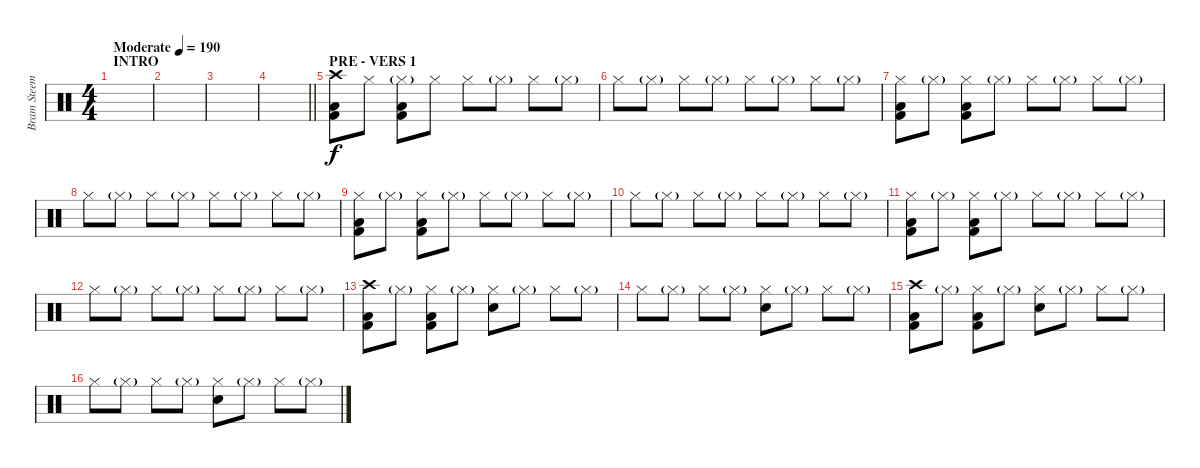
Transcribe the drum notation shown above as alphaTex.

\track ("Bram Steemans" "Bram Steem") {instrument percussion}
\staff {score}
\articulation defaults
\ts (4 4)
\section ("" "INTRO")
\tempo (190 "Moderate")
\clef neutral
\ks c
|
|
|
\barLineRight lightlight
|
\section ("" "PRE - VERS 1")
("Crash high (hit)" "Low Floor Tom (hit)" "Kick (hit) 2").8 "Hi-Hat (closed)".8 ("Hi-Hat (closed)"{g} "Low Floor Tom (hit)" "Kick (hit) 2").8 "Hi-Hat (closed)".8 "Hi-Hat (closed)".8 "Hi-Hat (closed)"{g}.8 "Hi-Hat (closed)".8 "Hi-Hat (closed)"{g}.8 |
"Hi-Hat (closed)".8 "Hi-Hat (closed)"{g}.8 "Hi-Hat (closed)".8 "Hi-Hat (closed)"{g}.8 "Hi-Hat (closed)".8 "Hi-Hat (closed)"{g}.8 "Hi-Hat (closed)".8 "Hi-Hat (closed)"{g}.8 |
("Hi-Hat (closed)" "Low Floor Tom (hit)" "Kick (hit) 2").8 "Hi-Hat (closed)"{g}.8 ("Hi-Hat (closed)" "Low Floor Tom (hit)" "Kick (hit) 2").8 "Hi-Hat (closed)"{g}.8 "Hi-Hat (closed)".8 "Hi-Hat (closed)"{g}.8 "Hi-Hat (closed)".8 "Hi-Hat (closed)"{g}.8 |
"Hi-Hat (closed)".8 "Hi-Hat (closed)"{g}.8 "Hi-Hat (closed)".8 "Hi-Hat (closed)"{g}.8 "Hi-Hat (closed)".8 "Hi-Hat (closed)"{g}.8 "Hi-Hat (closed)".8 "Hi-Hat (closed)"{g}.8 |
("Hi-Hat (closed)" "Low Floor Tom (hit)" "Kick (hit) 2").8 "Hi-Hat (closed)"{g}.8 ("Hi-Hat (closed)" "Low Floor Tom (hit)" "Kick (hit) 2").8 "Hi-Hat (closed)"{g}.8 "Hi-Hat (closed)".8 "Hi-Hat (closed)"{g}.8 "Hi-Hat (closed)".8 "Hi-Hat (closed)"{g}.8 |
"Hi-Hat (closed)".8 "Hi-Hat (closed)"{g}.8 "Hi-Hat (closed)".8 "Hi-Hat (closed)"{g}.8 "Hi-Hat (closed)".8 "Hi-Hat (closed)"{g}.8 "Hi-Hat (closed)".8 "Hi-Hat (closed)"{g}.8 |
("Hi-Hat (closed)" "Low Floor Tom (hit)" "Kick (hit) 2").8 "Hi-Hat (closed)"{g}.8 ("Hi-Hat (closed)" "Low Floor Tom (hit)" "Kick (hit) 2").8 "Hi-Hat (closed)"{g}.8 "Hi-Hat (closed)".8 "Hi-Hat (closed)"{g}.8 "Hi-Hat (closed)".8 "Hi-Hat (closed)"{g}.8 |
"Hi-Hat (closed)".8 "Hi-Hat (closed)"{g}.8 "Hi-Hat (closed)".8 "Hi-Hat (closed)"{g}.8 "Hi-Hat (closed)".8 "Hi-Hat (closed)"{g}.8 "Hi-Hat (closed)".8 "Hi-Hat (closed)"{g}.8 |
("Crash high (hit)" "Low Floor Tom (hit)" "Kick (hit) 2").8 "Hi-Hat (closed)"{g}.8 ("Hi-Hat (closed)" "Low Floor Tom (hit)" "Kick (hit) 2").8 "Hi-Hat (closed)"{g}.8 ("Hi-Hat (closed)" "Snare (hit) 2").8 "Hi-Hat (closed)"{g}.8 "Hi-Hat (closed)".8 "Hi-Hat (closed)"{g}.8 |
"Hi-Hat (closed)".8 "Hi-Hat (closed)"{g}.8 "Hi-Hat (closed)".8 "Hi-Hat (closed)"{g}.8 ("Hi-Hat (closed)" "Snare (hit) 2").8 "Hi-Hat (closed)"{g}.8 "Hi-Hat (closed)".8 "Hi-Hat (closed)"{g}.8 |
("Crash high (hit)" "Low Floor Tom (hit)" "Kick (hit) 2").8 "Hi-Hat (closed)"{g}.8 ("Hi-Hat (closed)" "Low Floor Tom (hit)" "Kick (hit) 2").8 "Hi-Hat (closed)"{g}.8 ("Hi-Hat (closed)" "Snare (hit) 2").8 "Hi-Hat (closed)"{g}.8 "Hi-Hat (closed)".8 "Hi-Hat (closed)"{g}.8 |
"Hi-Hat (closed)".8 "Hi-Hat (closed)"{g}.8 "Hi-Hat (closed)".8 "Hi-Hat (closed)"{g}.8 ("Hi-Hat (closed)" "Snare (hit) 2").8 "Hi-Hat (closed)"{g}.8 "Hi-Hat (closed)".8 "Hi-Hat (closed)"{g}.8
